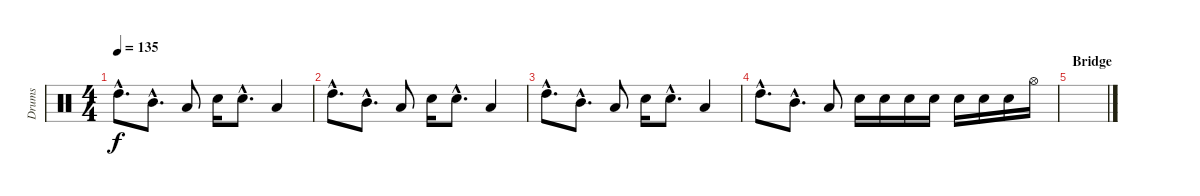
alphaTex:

\track ("Drums" "Drums") {instrument percussion}
\staff {score}
\articulation defaults
\ts (4 4)
\tempo 135
\clef neutral
\ks c "High Tom (hit)"{hac}.8{d dy f} "Mid Tom (hit)"{hac}.8{d} "Low Tom (hit)".8 "Electric Snare (hit)".16 "Electric Snare (hit)"{hac}.8{d} "Low Floor Tom (hit)".4
|
"High Tom (hit)"{hac}.8{d} "Mid Tom (hit)"{hac}.8{d} "Low Tom (hit)".8 "Electric Snare (hit)".16 "Electric Snare (hit)"{hac}.8{d} "Low Floor Tom (hit)".4 |
"High Tom (hit)"{hac}.8{d} "Mid Tom (hit)"{hac}.8{d} "Low Tom (hit)".8 "Electric Snare (hit)".16 "Electric Snare (hit)"{hac}.8{d} "Low Floor Tom (hit)".4 |
"High Tom (hit)"{hac}.8{d} "Mid Tom (hit)"{hac}.8{d} "Low Tom (hit)".8 "Electric Snare (hit)".16 "Electric Snare (hit)".16 "Electric Snare (hit)".16 "Electric Snare (hit)".16 "Electric Snare (hit)".16 "Electric Snare (hit)".16 "Electric Snare (hit)".16 "Hi-Hat (open)".16 |
\section ("" "Bridge")
